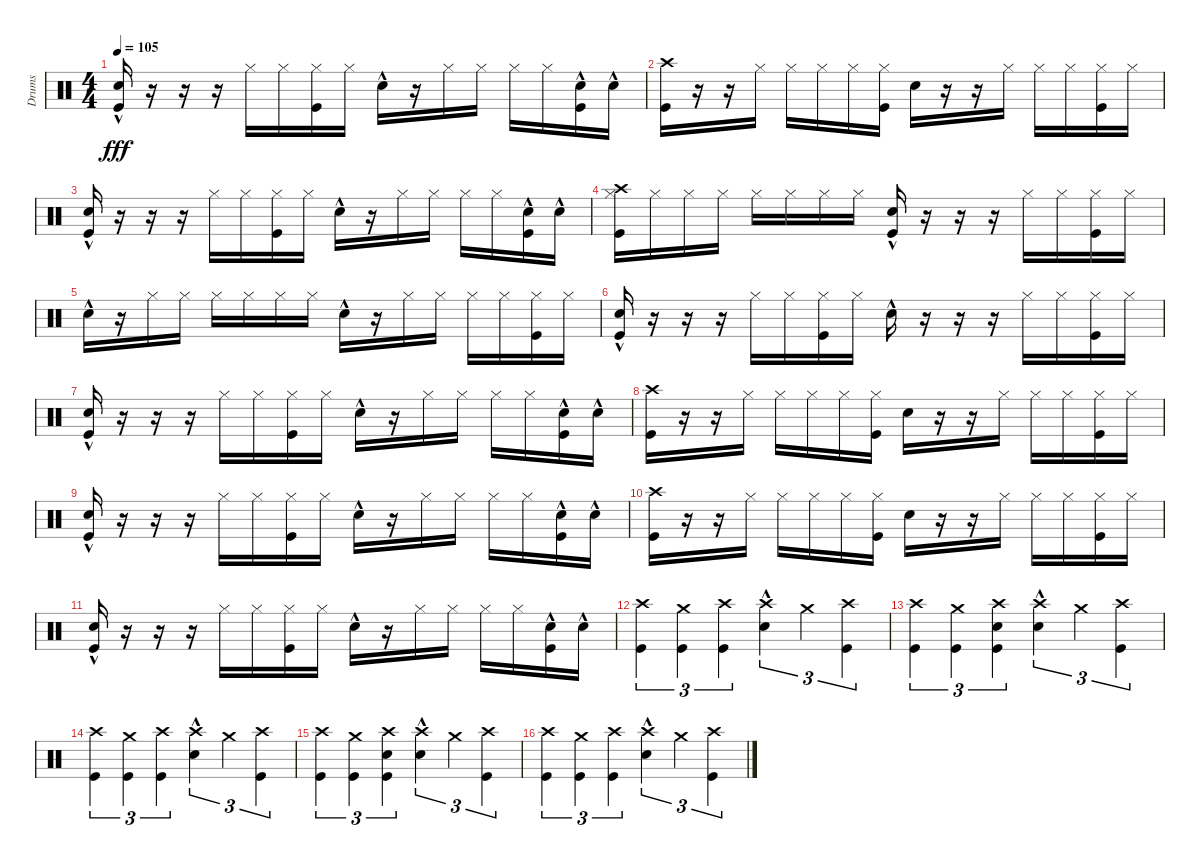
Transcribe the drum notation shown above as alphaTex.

\track ("Drums" "Drums") {instrument percussion}
\staff {score}
\articulation defaults
\ts (4 4)
\tempo 105
\clef neutral
\ks c
("Snare (hit) 2"{hac} "Kick (hit)").16{dy fff} r.16 r.16 r.16 "Hi-Hat (closed)".16 "Hi-Hat (closed)".16 ("Hi-Hat (closed)" "Kick (hit)").16 "Hi-Hat (closed)".16 "Snare (hit) 2"{hac}.16 r.16 "Hi-Hat (closed)".16 "Hi-Hat (closed)".16 "Hi-Hat (closed)".16 "Hi-Hat (closed)".16 ("Snare (hit) 2"{hac} "Kick (hit)").16 "Snare (hit) 2"{hac}.16 |
("Crash high (hit)" "Kick (hit)").16 r.16 r.16 "Hi-Hat (closed)".16 "Hi-Hat (closed)".16 "Hi-Hat (closed)".16 "Hi-Hat (closed)".16 ("Hi-Hat (closed)" "Kick (hit)").16 "Snare (hit) 2".16 r.16 r.16 "Hi-Hat (closed)".16 "Hi-Hat (closed)".16 "Hi-Hat (closed)".16 ("Hi-Hat (closed)" "Kick (hit)").16 "Hi-Hat (closed)".16 |
("Snare (hit) 2"{hac} "Kick (hit)").16 r.16 r.16 r.16 "Hi-Hat (closed)".16 "Hi-Hat (closed)".16 ("Hi-Hat (closed)" "Kick (hit)").16 "Hi-Hat (closed)".16 "Snare (hit) 2"{hac}.16 r.16 "Hi-Hat (closed)".16 "Hi-Hat (closed)".16 "Hi-Hat (closed)".16 "Hi-Hat (closed)".16 ("Snare (hit) 2"{hac} "Kick (hit)").16 "Snare (hit) 2"{hac}.16 |
("Crash high (hit)" "Hi-Hat (closed)" "Kick (hit)").16 "Hi-Hat (closed)".16 "Hi-Hat (closed)".16 "Hi-Hat (closed)".16 "Hi-Hat (closed)".16 "Hi-Hat (closed)".16 "Hi-Hat (closed)".16 "Hi-Hat (closed)".16 ("Snare (hit) 2"{hac} "Kick (hit)").16 r.16 r.16 r.16 "Hi-Hat (closed)".16 "Hi-Hat (closed)".16 ("Hi-Hat (closed)" "Kick (hit)").16 "Hi-Hat (closed)".16 |
"Snare (hit) 2"{hac}.16 r.16 "Hi-Hat (closed)".16 "Hi-Hat (closed)".16 "Hi-Hat (closed)".16 "Hi-Hat (closed)".16 "Hi-Hat (closed)".16 "Hi-Hat (closed)".16 "Snare (hit) 2"{hac}.16 r.16 "Hi-Hat (closed)".16 "Hi-Hat (closed)".16 "Hi-Hat (closed)".16 "Hi-Hat (closed)".16 ("Hi-Hat (closed)" "Kick (hit)").16 "Hi-Hat (closed)".16 |
("Snare (hit) 2"{hac} "Kick (hit)").16 r.16 r.16 r.16 "Hi-Hat (closed)".16 "Hi-Hat (closed)".16 ("Hi-Hat (closed)" "Kick (hit)").16 "Hi-Hat (closed)".16 "Snare (hit) 2"{hac}.16 r.16 r.16 r.16 "Hi-Hat (closed)".16 "Hi-Hat (closed)".16 ("Hi-Hat (closed)" "Kick (hit)").16 "Hi-Hat (closed)".16 |
("Snare (hit) 2"{hac} "Kick (hit)").16 r.16 r.16 r.16 "Hi-Hat (closed)".16 "Hi-Hat (closed)".16 ("Hi-Hat (closed)" "Kick (hit)").16 "Hi-Hat (closed)".16 "Snare (hit) 2"{hac}.16 r.16 "Hi-Hat (closed)".16 "Hi-Hat (closed)".16 "Hi-Hat (closed)".16 "Hi-Hat (closed)".16 ("Snare (hit) 2"{hac} "Kick (hit)").16 "Snare (hit) 2"{hac}.16 |
("Crash high (hit)" "Kick (hit)").16 r.16 r.16 "Hi-Hat (closed)".16 "Hi-Hat (closed)".16 "Hi-Hat (closed)".16 "Hi-Hat (closed)".16 ("Hi-Hat (closed)" "Kick (hit)").16 "Snare (hit) 2".16 r.16 r.16 "Hi-Hat (closed)".16 "Hi-Hat (closed)".16 "Hi-Hat (closed)".16 ("Hi-Hat (closed)" "Kick (hit)").16 "Hi-Hat (closed)".16 |
("Snare (hit) 2"{hac} "Kick (hit)").16 r.16 r.16 r.16 "Hi-Hat (closed)".16 "Hi-Hat (closed)".16 ("Hi-Hat (closed)" "Kick (hit)").16 "Hi-Hat (closed)".16 "Snare (hit) 2"{hac}.16 r.16 "Hi-Hat (closed)".16 "Hi-Hat (closed)".16 "Hi-Hat (closed)".16 "Hi-Hat (closed)".16 ("Snare (hit) 2"{hac} "Kick (hit)").16 "Snare (hit) 2"{hac}.16 |
("Crash high (hit)" "Kick (hit)").16 r.16 r.16 "Hi-Hat (closed)".16 "Hi-Hat (closed)".16 "Hi-Hat (closed)".16 "Hi-Hat (closed)".16 ("Hi-Hat (closed)" "Kick (hit)").16 "Snare (hit) 2".16 r.16 r.16 "Hi-Hat (closed)".16 "Hi-Hat (closed)".16 "Hi-Hat (closed)".16 ("Hi-Hat (closed)" "Kick (hit)").16 "Hi-Hat (closed)".16 |
("Snare (hit) 2"{hac} "Kick (hit)").16 r.16 r.16 r.16 "Hi-Hat (closed)".16 "Hi-Hat (closed)".16 ("Hi-Hat (closed)" "Kick (hit)").16 "Hi-Hat (closed)".16 "Snare (hit) 2"{hac}.16 r.16 "Hi-Hat (closed)".16 "Hi-Hat (closed)".16 "Hi-Hat (closed)".16 "Hi-Hat (closed)".16 ("Snare (hit) 2"{hac} "Kick (hit)").16 "Snare (hit) 2"{hac}.16 |
("Crash high (hit)" "Kick (hit)").4{tu (3 2)} ("Crash medium (hit)" "Kick (hit)").4{tu (3 2)} ("Crash high (hit)" "Kick (hit)").4{tu (3 2)} ("Crash high (hit)" "Snare (hit) 2"{hac}).4{tu (3 2)} "Crash medium (hit)".4{tu (3 2)} ("Crash high (hit)" "Kick (hit)").4{tu (3 2)} |
("Crash high (hit)" "Kick (hit)").4{tu (3 2)} ("Crash medium (hit)" "Kick (hit)").4{tu (3 2)} ("Crash high (hit)" "Snare (hit) 2" "Kick (hit)").4{tu (3 2)} ("Crash high (hit)" "Snare (hit) 2"{hac}).4{tu (3 2)} "Crash medium (hit)".4{tu (3 2)} ("Crash high (hit)" "Kick (hit)").4{tu (3 2)} |
("Crash high (hit)" "Kick (hit)").4{tu (3 2)} ("Crash medium (hit)" "Kick (hit)").4{tu (3 2)} ("Crash high (hit)" "Kick (hit)").4{tu (3 2)} ("Crash high (hit)" "Snare (hit) 2"{hac}).4{tu (3 2)} "Crash medium (hit)".4{tu (3 2)} ("Crash high (hit)" "Kick (hit)").4{tu (3 2)} |
("Crash high (hit)" "Kick (hit)").4{tu (3 2)} ("Crash medium (hit)" "Kick (hit)").4{tu (3 2)} ("Crash high (hit)" "Snare (hit) 2" "Kick (hit)").4{tu (3 2)} ("Crash high (hit)" "Snare (hit) 2"{hac}).4{tu (3 2)} "Crash medium (hit)".4{tu (3 2)} ("Crash high (hit)" "Kick (hit)").4{tu (3 2)} |
("Crash high (hit)" "Kick (hit)").4{tu (3 2)} ("Crash medium (hit)" "Kick (hit)").4{tu (3 2)} ("Crash high (hit)" "Kick (hit)").4{tu (3 2)} ("Crash high (hit)" "Snare (hit) 2"{hac}).4{tu (3 2)} "Crash medium (hit)".4{tu (3 2)} ("Crash high (hit)" "Kick (hit)").4{tu (3 2)}
